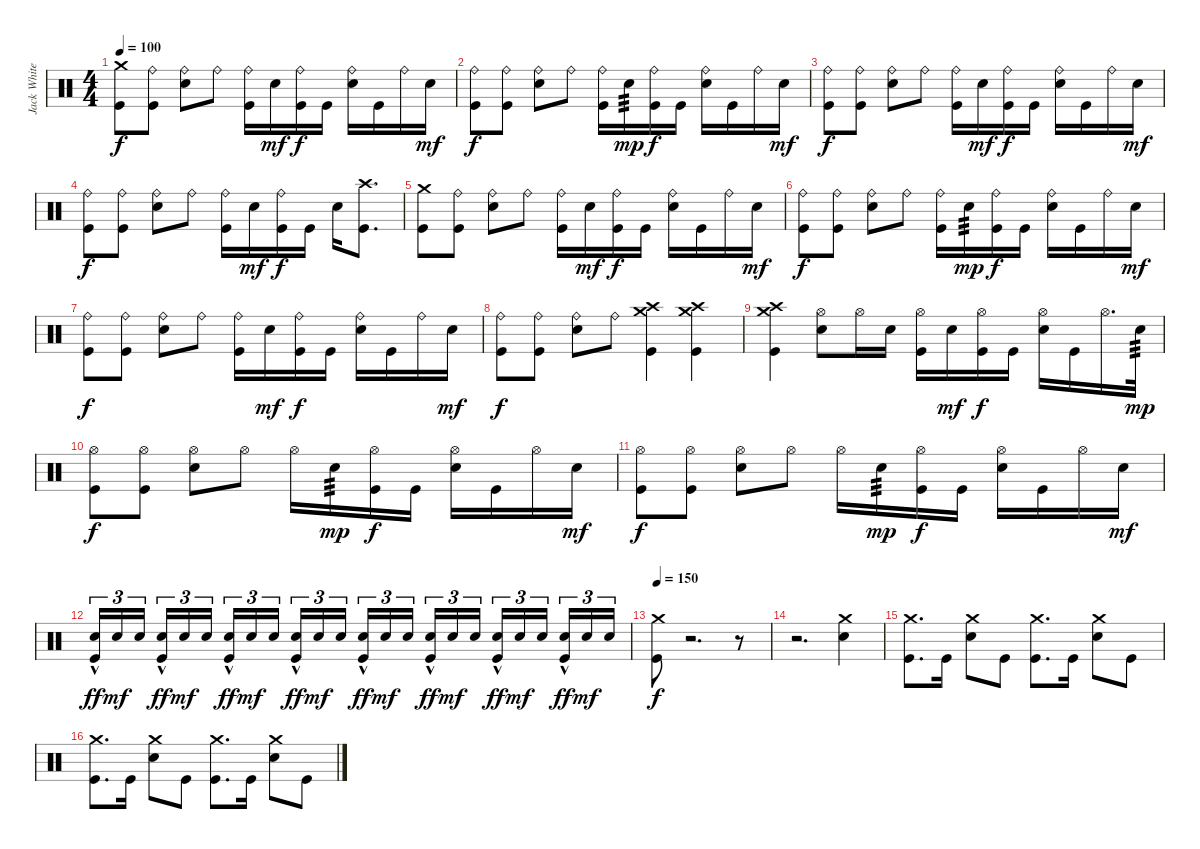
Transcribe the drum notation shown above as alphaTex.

\track ("Jack White" "Jack White") {instrument percussion}
\staff
\articulation defaults
\ts (4 4)
\tempo 100
\clef neutral
\ks c
("Crash medium (hit)" "Kick (hit)").8{dy f} ("Ride (bell)" "Kick (hit)").8 ("Ride (bell)" "Snare (hit) 2").8 "Ride (bell)".8 ("Ride (bell)" "Kick (hit)").16 "Snare (hit) 2".16{dy mf} ("Ride (bell)" "Kick (hit)").16{dy f} "Kick (hit)".16 ("Ride (bell)" "Snare (hit) 2").16 "Kick (hit)".16 "Ride (bell)".16 "Snare (hit) 2".16{dy mf} |
("Ride (bell)" "Kick (hit)").8{dy f} ("Ride (bell)" "Kick (hit)").8 ("Ride (bell)" "Snare (hit) 2").8 "Ride (bell)".8 ("Ride (bell)" "Kick (hit)").16 "Snare (hit) 2".16{tp 3 dy mp} ("Ride (bell)" "Kick (hit)").16{dy f} "Kick (hit)".16 ("Ride (bell)" "Snare (hit) 2").16 "Kick (hit)".16 "Ride (bell)".16 "Snare (hit) 2".16{dy mf} |
("Ride (bell)" "Kick (hit)").8{dy f} ("Ride (bell)" "Kick (hit)").8 ("Ride (bell)" "Snare (hit) 2").8 "Ride (bell)".8 ("Ride (bell)" "Kick (hit)").16 "Snare (hit) 2".16{dy mf} ("Ride (bell)" "Kick (hit)").16{dy f} "Kick (hit)".16 ("Ride (bell)" "Snare (hit) 2").16 "Kick (hit)".16 "Ride (bell)".16 "Snare (hit) 2".16{dy mf} |
("Ride (bell)" "Kick (hit)").8{dy f} ("Ride (bell)" "Kick (hit)").8 ("Ride (bell)" "Snare (hit) 2").8 "Ride (bell)".8 ("Ride (bell)" "Kick (hit)").16 "Snare (hit) 2".16{dy mf} ("Ride (bell)" "Kick (hit)").16{dy f} "Kick (hit)".16 "Snare (hit) 2".16 ("Crash high (hit)" "Kick (hit)").8{d} |
("Crash medium (hit)" "Kick (hit)").8 ("Ride (bell)" "Kick (hit)").8 ("Ride (bell)" "Snare (hit) 2").8 "Ride (bell)".8 ("Ride (bell)" "Kick (hit)").16 "Snare (hit) 2".16{dy mf} ("Ride (bell)" "Kick (hit)").16{dy f} "Kick (hit)".16 ("Ride (bell)" "Snare (hit) 2").16 "Kick (hit)".16 "Ride (bell)".16 "Snare (hit) 2".16{dy mf} |
("Ride (bell)" "Kick (hit)").8{dy f} ("Ride (bell)" "Kick (hit)").8 ("Ride (bell)" "Snare (hit) 2").8 "Ride (bell)".8 ("Ride (bell)" "Kick (hit)").16 "Snare (hit) 2".16{tp 3 dy mp} ("Ride (bell)" "Kick (hit)").16{dy f} "Kick (hit)".16 ("Ride (bell)" "Snare (hit) 2").16 "Kick (hit)".16 "Ride (bell)".16 "Snare (hit) 2".16{dy mf} |
("Ride (bell)" "Kick (hit)").8{dy f} ("Ride (bell)" "Kick (hit)").8 ("Ride (bell)" "Snare (hit) 2").8 "Ride (bell)".8 ("Ride (bell)" "Kick (hit)").16 "Snare (hit) 2".16{dy mf} ("Ride (bell)" "Kick (hit)").16{dy f} "Kick (hit)".16 ("Ride (bell)" "Snare (hit) 2").16 "Kick (hit)".16 "Ride (bell)".16 "Snare (hit) 2".16{dy mf} |
("Ride (bell)" "Kick (hit)").8{dy f} ("Ride (bell)" "Kick (hit)").8 ("Ride (bell)" "Snare (hit) 2").8 "Ride (bell)".8 ("Crash medium (hit)" "Crash high (hit)" "Kick (hit)").4 ("Crash medium (hit)" "Crash high (hit)" "Kick (hit)").4 |
("Crash medium (hit)" "Crash high (hit)" "Kick (hit)").4 ("Hi-Hat (open)" "Snare (hit) 2").8 "Hi-Hat (open)".16 "Snare (hit) 2".16 ("Hi-Hat (open)" "Kick (hit)").16 "Snare (hit) 2".16{dy mf} ("Hi-Hat (open)" "Kick (hit)").16{dy f} "Kick (hit)".16 ("Hi-Hat (open)" "Snare (hit) 2").16 "Kick (hit)".16 "Hi-Hat (open)".16{d} "Snare (hit) 2".32{tp 3 dy mp} |
("Hi-Hat (open)" "Kick (hit)").8{dy f} ("Hi-Hat (open)" "Kick (hit)").8 ("Hi-Hat (open)" "Snare (hit) 2").8 "Hi-Hat (open)".8 "Hi-Hat (open)".16 "Snare (hit) 2".16{tp 3 dy mp} ("Hi-Hat (open)" "Kick (hit)").16{dy f} "Kick (hit)".16 ("Hi-Hat (open)" "Snare (hit) 2").16 "Kick (hit)".16 "Hi-Hat (open)".16 "Snare (hit) 2".16{dy mf} |
("Hi-Hat (open)" "Kick (hit)").8{dy f} ("Hi-Hat (open)" "Kick (hit)").8 ("Hi-Hat (open)" "Snare (hit) 2").8 "Hi-Hat (open)".8 "Hi-Hat (open)".16 "Snare (hit) 2".16{tp 3 dy mp} ("Hi-Hat (open)" "Kick (hit)").16{dy f} "Kick (hit)".16 ("Hi-Hat (open)" "Snare (hit) 2").16 "Kick (hit)".16 "Hi-Hat (open)".16 "Snare (hit) 2".16{dy mf} |
("Snare (hit) 2"{hac} "Kick (hit)").16{tu (3 2) dy ff} "Snare (hit) 2".16{tu (3 2) dy mf} "Snare (hit) 2".16{tu (3 2) beam splitsecondary} ("Snare (hit) 2"{hac} "Kick (hit)").16{tu (3 2) dy ff} "Snare (hit) 2".16{tu (3 2) dy mf} "Snare (hit) 2".16{tu (3 2)} ("Snare (hit) 2"{hac} "Kick (hit)").16{tu (3 2) dy ff} "Snare (hit) 2".16{tu (3 2) dy mf} "Snare (hit) 2".16{tu (3 2) beam splitsecondary} ("Snare (hit) 2"{hac} "Kick (hit)").16{tu (3 2) dy ff} "Snare (hit) 2".16{tu (3 2) dy mf} "Snare (hit) 2".16{tu (3 2)} ("Snare (hit) 2"{hac} "Kick (hit)").16{tu (3 2) dy ff} "Snare (hit) 2".16{tu (3 2) dy mf} "Snare (hit) 2".16{tu (3 2) beam splitsecondary} ("Snare (hit) 2"{hac} "Kick (hit)").16{tu (3 2) dy ff} "Snare (hit) 2".16{tu (3 2) dy mf} "Snare (hit) 2".16{tu (3 2)} ("Snare (hit) 2"{hac} "Kick (hit)").16{tu (3 2) dy ff} "Snare (hit) 2".16{tu (3 2) dy mf} "Snare (hit) 2".16{tu (3 2) beam splitsecondary} ("Snare (hit) 2"{hac} "Kick (hit)").16{tu (3 2) dy ff} "Snare (hit) 2".16{tu (3 2) dy mf} "Snare (hit) 2".16{tu (3 2)} |
\tempo 150
("Crash medium (hit)" "Kick (hit)").8{dy f} r.2{d} r.8 |
r.2{d} ("Crash medium (hit)" "Snare (hit) 2").4 |
("Crash medium (hit)" "Kick (hit)").8{d} "Kick (hit)".16 ("Crash medium (hit)" "Snare (hit) 2").8 "Kick (hit)".8 ("Crash medium (hit)" "Kick (hit)").8{d} "Kick (hit)".16 ("Crash medium (hit)" "Snare (hit) 2").8 "Kick (hit)".8 |
("Crash medium (hit)" "Kick (hit)").8{d} "Kick (hit)".16 ("Crash medium (hit)" "Snare (hit) 2").8 "Kick (hit)".8 ("Crash medium (hit)" "Kick (hit)").8{d} "Kick (hit)".16 ("Crash medium (hit)" "Snare (hit) 2").8 "Kick (hit)".8
